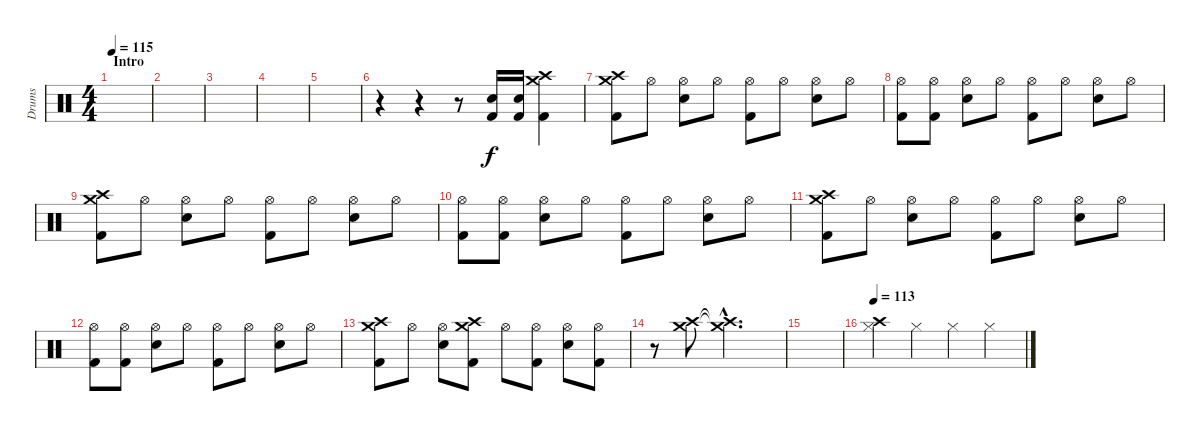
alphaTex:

\track ("Drums" "Drums") {instrument percussion}
\staff {score}
\articulation defaults
\ts (4 4)
\section ("" "Intro")
\tempo 115
\clef neutral
\ks c
|
|
|
|
|
r.4 r.4 r.8 ("Electric Snare (hit)" "Kick (hit) 2").16 ("Electric Snare (hit)" "Kick (hit) 2").16 ("Crash high (hit)" "Crash medium (hit)" "Kick (hit) 2").4 |
("Crash high (hit)" "Crash medium (hit)" "Kick (hit) 2").8 "Hi-Hat (open)".8 ("Hi-Hat (open)" "Electric Snare (hit)").8 "Hi-Hat (open)".8 ("Hi-Hat (open)" "Kick (hit) 2").8 "Hi-Hat (open)".8 ("Hi-Hat (open)" "Electric Snare (hit)").8 "Hi-Hat (open)".8 |
("Hi-Hat (open)" "Kick (hit) 2").8 ("Hi-Hat (open)" "Kick (hit) 2").8 ("Hi-Hat (open)" "Electric Snare (hit)").8 "Hi-Hat (open)".8 ("Hi-Hat (open)" "Kick (hit) 2").8 "Hi-Hat (open)".8 ("Hi-Hat (open)" "Electric Snare (hit)").8 "Hi-Hat (open)".8 |
("Crash high (hit)" "Crash medium (hit)" "Kick (hit) 2").8 "Hi-Hat (open)".8 ("Hi-Hat (open)" "Electric Snare (hit)").8 "Hi-Hat (open)".8 ("Hi-Hat (open)" "Kick (hit) 2").8 "Hi-Hat (open)".8 ("Hi-Hat (open)" "Electric Snare (hit)").8 "Hi-Hat (open)".8 |
("Hi-Hat (open)" "Kick (hit) 2").8 ("Hi-Hat (open)" "Kick (hit) 2").8 ("Hi-Hat (open)" "Electric Snare (hit)").8 "Hi-Hat (open)".8 ("Hi-Hat (open)" "Kick (hit) 2").8 "Hi-Hat (open)".8 ("Hi-Hat (open)" "Electric Snare (hit)").8 "Hi-Hat (open)".8 |
("Crash high (hit)" "Crash medium (hit)" "Kick (hit) 2").8 "Hi-Hat (open)".8 ("Hi-Hat (open)" "Electric Snare (hit)").8 "Hi-Hat (open)".8 ("Hi-Hat (open)" "Kick (hit) 2").8 "Hi-Hat (open)".8 ("Hi-Hat (open)" "Electric Snare (hit)").8 "Hi-Hat (open)".8 |
("Hi-Hat (open)" "Kick (hit) 2").8 ("Hi-Hat (open)" "Kick (hit) 2").8 ("Hi-Hat (open)" "Electric Snare (hit)").8 "Hi-Hat (open)".8 ("Hi-Hat (open)" "Kick (hit) 2").8 "Hi-Hat (open)".8 ("Hi-Hat (open)" "Electric Snare (hit)").8 "Hi-Hat (open)".8 |
("Crash high (hit)" "Crash medium (hit)" "Kick (hit) 2").8 "Hi-Hat (open)".8 ("Hi-Hat (open)" "Electric Snare (hit)").8 ("Crash high (hit)" "Crash medium (hit)" "Kick (hit) 2").8 "Hi-Hat (open)".8 ("Hi-Hat (open)" "Kick (hit) 2").8 ("Hi-Hat (open)" "Electric Snare (hit)").8 ("Hi-Hat (open)" "Kick (hit) 2").8 |
r.8 ("Crash high (hit)" "Crash medium (hit)").8 ("Crash high (hit)"{hac t} "Crash medium (hit)"{hac t}).2{d} |
|
\tempo 113
("Hi-Hat (closed)" "Crash high (hit)").4 "Hi-Hat (closed)".4 "Hi-Hat (closed)".4 "Hi-Hat (closed)".4
